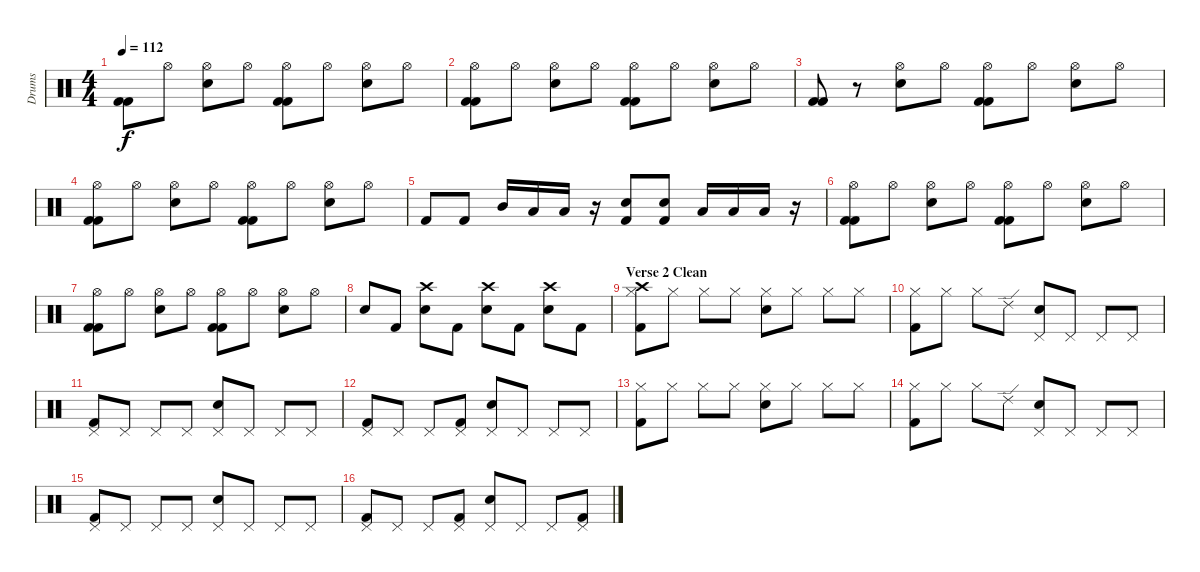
\track ("Drums" "Drums") {instrument percussion}
\staff {score}
\articulation defaults
\ts (4 4)
\tempo 112
\clef neutral
\ks c
("Kick (hit) 2" "Kick (hit) 2").8{dy f} "Hi-Hat (open)".8 ("Hi-Hat (open)" "Electric Snare (hit)").8 "Hi-Hat (open)".8 ("Hi-Hat (open)" "Kick (hit) 2" "Kick (hit) 2").8 "Hi-Hat (open)".8 ("Hi-Hat (open)" "Electric Snare (hit)").8 "Hi-Hat (open)".8 |
("Hi-Hat (open)" "Kick (hit) 2" "Kick (hit) 2").8 "Hi-Hat (open)".8 ("Hi-Hat (open)" "Electric Snare (hit)").8 "Hi-Hat (open)".8 ("Hi-Hat (open)" "Kick (hit) 2" "Kick (hit) 2").8 "Hi-Hat (open)".8 ("Hi-Hat (open)" "Electric Snare (hit)").8 "Hi-Hat (open)".8 |
("Kick (hit) 2" "Kick (hit) 2").8 r.8 ("Hi-Hat (open)" "Electric Snare (hit)").8 "Hi-Hat (open)".8 ("Hi-Hat (open)" "Kick (hit) 2" "Kick (hit) 2").8 "Hi-Hat (open)".8 ("Hi-Hat (open)" "Electric Snare (hit)").8 "Hi-Hat (open)".8 |
("Hi-Hat (open)" "Kick (hit) 2" "Kick (hit) 2").8 "Hi-Hat (open)".8 ("Hi-Hat (open)" "Electric Snare (hit)").8 "Hi-Hat (open)".8 ("Hi-Hat (open)" "Kick (hit) 2" "Kick (hit) 2").8 "Hi-Hat (open)".8 ("Hi-Hat (open)" "Electric Snare (hit)").8 "Hi-Hat (open)".8 |
"Kick (hit) 2".8 "Kick (hit) 2".8 "Mid Tom (hit)".16 "Low Tom (hit)".16 "Low Floor Tom (hit)".16 r.16 ("Snare (hit) 2" "Kick (hit) 2").8 ("Snare (hit) 2" "Kick (hit) 2").8 "Low Tom (hit)".16 "Low Tom (hit)".16 "Low Floor Tom (hit)".16 r.16 |
("Hi-Hat (open)" "Kick (hit) 2" "Kick (hit) 2").8 "Hi-Hat (open)".8 ("Hi-Hat (open)" "Electric Snare (hit)").8 "Hi-Hat (open)".8 ("Hi-Hat (open)" "Kick (hit) 2" "Kick (hit) 2").8 "Hi-Hat (open)".8 ("Hi-Hat (open)" "Electric Snare (hit)").8 "Hi-Hat (open)".8 |
("Hi-Hat (open)" "Kick (hit) 2" "Kick (hit) 2").8 "Hi-Hat (open)".8 ("Hi-Hat (open)" "Electric Snare (hit)").8 "Hi-Hat (open)".8 ("Hi-Hat (open)" "Kick (hit) 2" "Kick (hit) 2").8 "Hi-Hat (open)".8 ("Hi-Hat (open)" "Electric Snare (hit)").8 "Hi-Hat (open)".8 |
"Electric Snare (hit)".8 "Kick (hit) 2".8 ("Crash high (hit)" "Electric Snare (hit)").8 "Kick (hit) 2".8 ("Crash high (hit)" "Electric Snare (hit)").8 "Kick (hit) 2".8 ("Crash high (hit)" "Electric Snare (hit)").8 "Kick (hit) 2".8 |
\section ("" "Verse 2 Clean")
("Hi-Hat (closed)" "Crash high (hit)" "Kick (hit) 2").8 "Hi-Hat (closed)".8 "Hi-Hat (closed)".8 "Hi-Hat (closed)".8 ("Hi-Hat (closed)" "Electric Snare (hit)").8 "Hi-Hat (closed)".8 "Hi-Hat (closed)".8 "Hi-Hat (closed)".8 |
("Hi-Hat (closed)" "Kick (hit) 2").8 "Hi-Hat (closed)".8 "Hi-Hat (closed)".8 "Ride (edge) 2".8 ("Pedal Hi-Hat (hit)" "Electric Snare (hit)").8 "Pedal Hi-Hat (hit)".8 "Pedal Hi-Hat (hit)".8 "Pedal Hi-Hat (hit)".8 |
("Pedal Hi-Hat (hit)" "Kick (hit) 2").8 "Pedal Hi-Hat (hit)".8 "Pedal Hi-Hat (hit)".8 "Pedal Hi-Hat (hit)".8 ("Pedal Hi-Hat (hit)" "Electric Snare (hit)").8 "Pedal Hi-Hat (hit)".8 "Pedal Hi-Hat (hit)".8 "Pedal Hi-Hat (hit)".8 |
("Pedal Hi-Hat (hit)" "Kick (hit) 2").8 "Pedal Hi-Hat (hit)".8 "Pedal Hi-Hat (hit)".8 ("Pedal Hi-Hat (hit)" "Kick (hit) 2").8 ("Pedal Hi-Hat (hit)" "Electric Snare (hit)").8 "Pedal Hi-Hat (hit)".8 "Pedal Hi-Hat (hit)".8 "Pedal Hi-Hat (hit)".8 |
("Hi-Hat (closed)" "Kick (hit) 2").8 "Hi-Hat (closed)".8 "Hi-Hat (closed)".8 "Hi-Hat (closed)".8 ("Hi-Hat (closed)" "Electric Snare (hit)").8 "Hi-Hat (closed)".8 "Hi-Hat (closed)".8 "Hi-Hat (closed)".8 |
("Hi-Hat (closed)" "Kick (hit) 2").8 "Hi-Hat (closed)".8 "Hi-Hat (closed)".8 "Ride (edge) 2".8 ("Pedal Hi-Hat (hit)" "Electric Snare (hit)").8 "Pedal Hi-Hat (hit)".8 "Pedal Hi-Hat (hit)".8 "Pedal Hi-Hat (hit)".8 |
("Pedal Hi-Hat (hit)" "Kick (hit) 2").8 "Pedal Hi-Hat (hit)".8 "Pedal Hi-Hat (hit)".8 "Pedal Hi-Hat (hit)".8 ("Pedal Hi-Hat (hit)" "Electric Snare (hit)").8 "Pedal Hi-Hat (hit)".8 "Pedal Hi-Hat (hit)".8 "Pedal Hi-Hat (hit)".8 |
("Pedal Hi-Hat (hit)" "Kick (hit) 2").8 "Pedal Hi-Hat (hit)".8 "Pedal Hi-Hat (hit)".8 ("Pedal Hi-Hat (hit)" "Kick (hit) 2").8 ("Pedal Hi-Hat (hit)" "Electric Snare (hit)").8 "Pedal Hi-Hat (hit)".8 "Pedal Hi-Hat (hit)".8 ("Pedal Hi-Hat (hit)" "Kick (hit) 2").8
